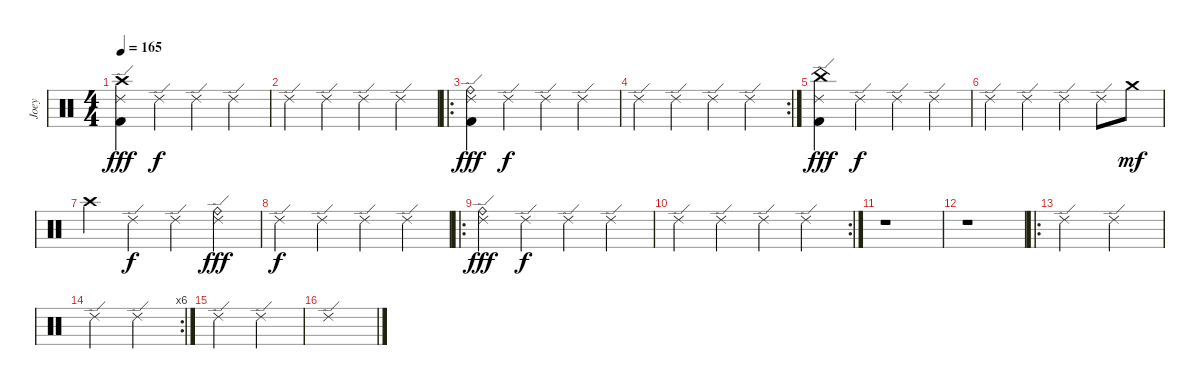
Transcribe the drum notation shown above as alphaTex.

\track ("Joey" "Joey") {instrument percussion}
\staff {score}
\articulation defaults
\ts (4 4)
\tempo 165
\clef neutral
\ks c
("Crash high (hit)" "Ride (edge) 2" "Kick (hit) 2").4{dy fff} "Ride (edge) 2".4{dy f} "Ride (edge) 2".4 "Ride (edge) 2".4 |
"Ride (edge) 2".4 "Ride (edge) 2".4 "Ride (edge) 2".4 "Ride (edge) 2".4 |
\ro
("Ride (bell)" "Ride (edge) 2" "Kick (hit) 2").4{dy fff} "Ride (edge) 2".4{dy f} "Ride (edge) 2".4 "Ride (edge) 2".4 |
\rc 2 "Ride (edge) 2".4 "Ride (edge) 2".4 "Ride (edge) 2".4 "Ride (edge) 2".4
|
("China (hit)" "Ride (edge) 2" "Kick (hit) 2").4{dy fff} "Ride (edge) 2".4{dy f} "Ride (edge) 2".4 "Ride (edge) 2".4 |
"Ride (edge) 2".4 "Ride (edge) 2".4 "Ride (edge) 2".4 "Ride (edge) 2".8 "Crash medium (hit)".8{dy mf} |
"Crash high (hit)".4 "Ride (edge) 2".4{dy f} "Ride (edge) 2".4 ("Ride (edge) 2" "Ride (bell)").4{dy fff} |
"Ride (edge) 2".4{dy f} "Ride (edge) 2".4 "Ride (edge) 2".4 "Ride (edge) 2".4 |
\ro
("Ride (bell)" "Ride (edge) 2").4{dy fff} "Ride (edge) 2".4{dy f} "Ride (edge) 2".4 "Ride (edge) 2".4 |
\rc 2 "Ride (edge) 2".4 "Ride (edge) 2".4 "Ride (edge) 2".4 "Ride (edge) 2".4
|
r.1 |
r.1 |
\ro "Ride (edge) 2".2 "Ride (edge) 2".2
|
\rc 6 "Ride (edge) 2".2 "Ride (edge) 2".2
|
"Ride (edge) 2".2 "Ride (edge) 2".2 |
"Ride (edge) 2".1
